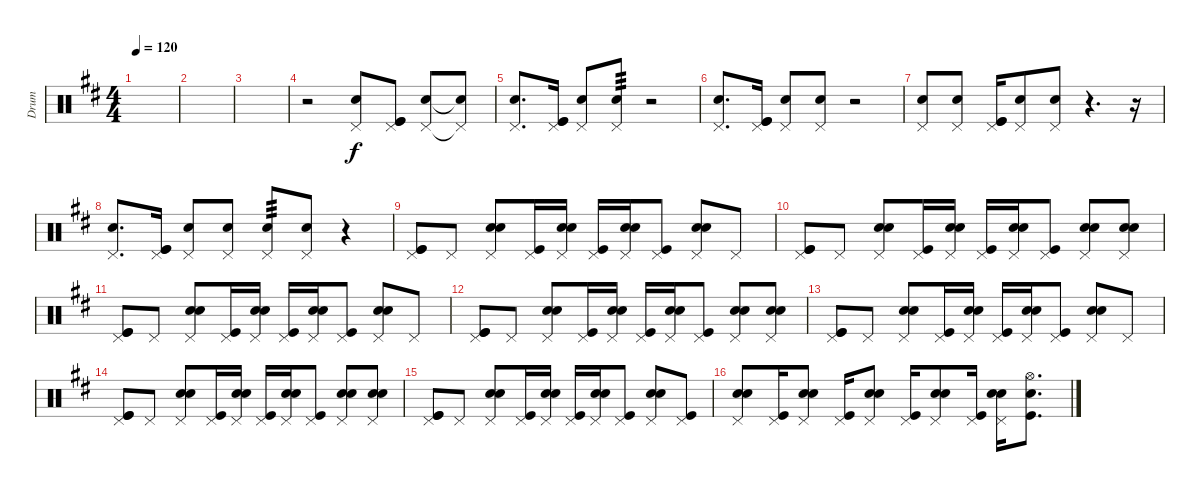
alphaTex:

\track ("Drum" "Drum") {instrument percussion}
\staff {score}
\articulation defaults
\ts (4 4)
\tempo 120
\clef neutral
\ks d
|
|
|
r.2 ("Pedal Hi-Hat (hit)" "Electric Snare (hit)").8 ("Pedal Hi-Hat (hit)" "Kick (hit)" "Kick (hit)").8 ("Pedal Hi-Hat (hit)" "Electric Snare (hit)").8 ("Pedal Hi-Hat (hit)"{t} "Electric Snare (hit)"{t}).8 |
("Pedal Hi-Hat (hit)" "Electric Snare (hit)").8{d} ("Pedal Hi-Hat (hit)" "Kick (hit)" "Kick (hit)").16 ("Pedal Hi-Hat (hit)" "Electric Snare (hit)").8 ("Pedal Hi-Hat (hit)" "Electric Snare (hit)").8{tp 3} r.2 |
("Pedal Hi-Hat (hit)" "Electric Snare (hit)").8{d} ("Pedal Hi-Hat (hit)" "Kick (hit)" "Kick (hit)").16 ("Pedal Hi-Hat (hit)" "Electric Snare (hit)").8 ("Pedal Hi-Hat (hit)" "Electric Snare (hit)").8 r.2 |
("Pedal Hi-Hat (hit)" "Electric Snare (hit)").8 ("Pedal Hi-Hat (hit)" "Electric Snare (hit)").8 ("Pedal Hi-Hat (hit)" "Kick (hit)" "Kick (hit)").16 ("Pedal Hi-Hat (hit)" "Electric Snare (hit)").8 ("Pedal Hi-Hat (hit)" "Electric Snare (hit)").8 r.4{d} r.16 |
("Pedal Hi-Hat (hit)" "Electric Snare (hit)").8{d} ("Pedal Hi-Hat (hit)" "Kick (hit)" "Kick (hit)").16 ("Pedal Hi-Hat (hit)" "Electric Snare (hit)").8 ("Pedal Hi-Hat (hit)" "Electric Snare (hit)").8 ("Pedal Hi-Hat (hit)" "Electric Snare (hit)").8{tp 3} ("Pedal Hi-Hat (hit)" "Electric Snare (hit)").8 r.4 |
("Pedal Hi-Hat (hit)" "Kick (hit)" "Kick (hit)").8 "Pedal Hi-Hat (hit)".8 ("Pedal Hi-Hat (hit)" "Electric Snare (hit)" "Electric Snare (hit)").8 ("Pedal Hi-Hat (hit)" "Kick (hit)").16 ("Pedal Hi-Hat (hit)" "Electric Snare (hit)" "Electric Snare (hit)").16 ("Pedal Hi-Hat (hit)" "Kick (hit)").16 ("Pedal Hi-Hat (hit)" "Electric Snare (hit)" "Electric Snare (hit)").16 ("Pedal Hi-Hat (hit)" "Kick (hit)").8 ("Pedal Hi-Hat (hit)" "Electric Snare (hit)" "Electric Snare (hit)").8 "Pedal Hi-Hat (hit)".8 |
("Pedal Hi-Hat (hit)" "Kick (hit)" "Kick (hit)").8 "Pedal Hi-Hat (hit)".8 ("Pedal Hi-Hat (hit)" "Electric Snare (hit)" "Electric Snare (hit)").8 ("Pedal Hi-Hat (hit)" "Kick (hit)").16 ("Pedal Hi-Hat (hit)" "Electric Snare (hit)" "Electric Snare (hit)").16 ("Pedal Hi-Hat (hit)" "Kick (hit)").16 ("Pedal Hi-Hat (hit)" "Electric Snare (hit)" "Electric Snare (hit)").16 ("Pedal Hi-Hat (hit)" "Kick (hit)").8 ("Pedal Hi-Hat (hit)" "Electric Snare (hit)" "Electric Snare (hit)").8 ("Pedal Hi-Hat (hit)" "Electric Snare (hit)" "Electric Snare (hit)").8 |
("Pedal Hi-Hat (hit)" "Kick (hit)" "Kick (hit)").8 "Pedal Hi-Hat (hit)".8 ("Pedal Hi-Hat (hit)" "Electric Snare (hit)" "Electric Snare (hit)").8 ("Pedal Hi-Hat (hit)" "Kick (hit)").16 ("Pedal Hi-Hat (hit)" "Electric Snare (hit)" "Electric Snare (hit)").16 ("Pedal Hi-Hat (hit)" "Kick (hit)").16 ("Pedal Hi-Hat (hit)" "Electric Snare (hit)" "Electric Snare (hit)").16 ("Pedal Hi-Hat (hit)" "Kick (hit)").8 ("Pedal Hi-Hat (hit)" "Electric Snare (hit)" "Electric Snare (hit)").8 "Pedal Hi-Hat (hit)".8 |
("Pedal Hi-Hat (hit)" "Kick (hit)" "Kick (hit)").8 "Pedal Hi-Hat (hit)".8 ("Pedal Hi-Hat (hit)" "Electric Snare (hit)" "Electric Snare (hit)").8 ("Pedal Hi-Hat (hit)" "Kick (hit)").16 ("Pedal Hi-Hat (hit)" "Electric Snare (hit)" "Electric Snare (hit)").16 ("Pedal Hi-Hat (hit)" "Kick (hit)").16 ("Pedal Hi-Hat (hit)" "Electric Snare (hit)" "Electric Snare (hit)").16 ("Pedal Hi-Hat (hit)" "Kick (hit)").8 ("Pedal Hi-Hat (hit)" "Electric Snare (hit)" "Electric Snare (hit)").8 ("Pedal Hi-Hat (hit)" "Electric Snare (hit)" "Electric Snare (hit)").8 |
("Pedal Hi-Hat (hit)" "Kick (hit)" "Kick (hit)").8 "Pedal Hi-Hat (hit)".8 ("Pedal Hi-Hat (hit)" "Electric Snare (hit)" "Electric Snare (hit)").8 ("Pedal Hi-Hat (hit)" "Kick (hit)").16 ("Pedal Hi-Hat (hit)" "Electric Snare (hit)" "Electric Snare (hit)").16 ("Pedal Hi-Hat (hit)" "Kick (hit)").16 ("Pedal Hi-Hat (hit)" "Electric Snare (hit)" "Electric Snare (hit)").16 ("Pedal Hi-Hat (hit)" "Kick (hit)").8 ("Pedal Hi-Hat (hit)" "Electric Snare (hit)" "Electric Snare (hit)").8 "Pedal Hi-Hat (hit)".8 |
("Pedal Hi-Hat (hit)" "Kick (hit)" "Kick (hit)").8 "Pedal Hi-Hat (hit)".8 ("Pedal Hi-Hat (hit)" "Electric Snare (hit)" "Electric Snare (hit)").8 ("Pedal Hi-Hat (hit)" "Kick (hit)").16 ("Pedal Hi-Hat (hit)" "Electric Snare (hit)" "Electric Snare (hit)").16 ("Pedal Hi-Hat (hit)" "Kick (hit)").16 ("Pedal Hi-Hat (hit)" "Electric Snare (hit)" "Electric Snare (hit)").16 ("Pedal Hi-Hat (hit)" "Kick (hit)").8 ("Pedal Hi-Hat (hit)" "Electric Snare (hit)" "Electric Snare (hit)").8 ("Pedal Hi-Hat (hit)" "Electric Snare (hit)" "Electric Snare (hit)").8 |
("Pedal Hi-Hat (hit)" "Kick (hit)" "Kick (hit)").8 "Pedal Hi-Hat (hit)".8 ("Pedal Hi-Hat (hit)" "Electric Snare (hit)" "Electric Snare (hit)").8 ("Pedal Hi-Hat (hit)" "Kick (hit)").16 ("Pedal Hi-Hat (hit)" "Electric Snare (hit)" "Electric Snare (hit)").16 ("Pedal Hi-Hat (hit)" "Kick (hit)").16 ("Pedal Hi-Hat (hit)" "Electric Snare (hit)" "Electric Snare (hit)").16 ("Pedal Hi-Hat (hit)" "Kick (hit)").8 ("Pedal Hi-Hat (hit)" "Electric Snare (hit)" "Electric Snare (hit)").8 ("Pedal Hi-Hat (hit)" "Kick (hit)").8 |
("Pedal Hi-Hat (hit)" "Electric Snare (hit)" "Electric Snare (hit)").8 ("Pedal Hi-Hat (hit)" "Kick (hit)").16 ("Pedal Hi-Hat (hit)" "Electric Snare (hit)" "Electric Snare (hit)").8 ("Pedal Hi-Hat (hit)" "Kick (hit)").16 ("Pedal Hi-Hat (hit)" "Electric Snare (hit)" "Electric Snare (hit)").8 ("Pedal Hi-Hat (hit)" "Kick (hit)").16 ("Pedal Hi-Hat (hit)" "Electric Snare (hit)" "Electric Snare (hit)").8 ("Pedal Hi-Hat (hit)" "Kick (hit)").16 ("Pedal Hi-Hat (hit)" "Electric Snare (hit)" "Electric Snare (hit)").16 ("Hi-Hat (open)" "Kick (hit)" "Electric Snare (hit)").8{d}
